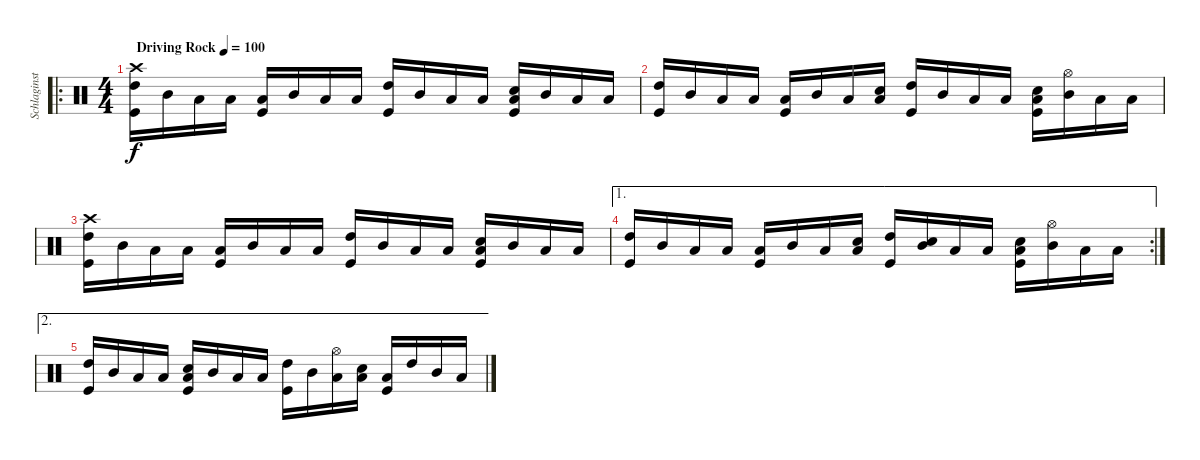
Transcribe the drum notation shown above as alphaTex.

\track ("Schlaginstrumente - Auswahl" "Schlaginst") {instrument percussion}
\staff {score}
\articulation defaults
\ro
\ts (4 4)
\tempo (100 "Driving Rock")
\clef neutral
\ks c
("Crash high (hit)" "High Tom (hit)" "Kick (hit)").16{dy f} "Mid Tom (hit)".16 "Low Tom (hit)".16 "Low Tom (hit)".16 ("Low Tom (hit)" "Kick (hit)").16 "Mid Tom (hit)".16 "Low Tom (hit)".16 "Low Tom (hit)".16 ("High Tom (hit)" "Kick (hit)").16 "Mid Tom (hit)".16 "Low Tom (hit)".16 "Low Tom (hit)".16 ("Snare (hit) 2" "Low Tom (hit)" "Kick (hit)").16 "Mid Tom (hit)".16 "Low Tom (hit)".16 "Low Tom (hit)".16 |
("High Tom (hit)" "Kick (hit)").16 "Mid Tom (hit)".16 "Low Tom (hit)".16 "Low Tom (hit)".16 ("Low Tom (hit)" "Kick (hit)").16 "Mid Tom (hit)".16 "Low Tom (hit)".16 ("Snare (hit) 2" "Low Tom (hit)").16 ("High Tom (hit)" "Kick (hit)").16 "Mid Tom (hit)".16 "Low Tom (hit)".16 "Low Tom (hit)".16 ("Snare (hit) 2" "Low Tom (hit)" "Kick (hit)").16 ("Hi-Hat (open)" "Mid Tom (hit)").16 "Low Tom (hit)".16 "Low Tom (hit)".16 |
("Crash high (hit)" "High Tom (hit)" "Kick (hit)").16 "Mid Tom (hit)".16 "Low Tom (hit)".16 "Low Tom (hit)".16 ("Low Tom (hit)" "Kick (hit)").16 "Mid Tom (hit)".16 "Low Tom (hit)".16 "Low Tom (hit)".16 ("High Tom (hit)" "Kick (hit)").16 "Mid Tom (hit)".16 "Low Tom (hit)".16 "Low Tom (hit)".16 ("Snare (hit) 2" "Low Tom (hit)" "Kick (hit)").16 "Mid Tom (hit)".16 "Low Tom (hit)".16 "Low Tom (hit)".16 |
\ae 1
\rc 2
("High Tom (hit)" "Kick (hit)").16 "Mid Tom (hit)".16 "Low Tom (hit)".16 "Low Tom (hit)".16 ("Low Tom (hit)" "Kick (hit)").16 "Mid Tom (hit)".16 "Low Tom (hit)".16 ("Snare (hit) 2" "Low Tom (hit)").16 ("High Tom (hit)" "Kick (hit)").16 ("Snare (hit) 2" "Mid Tom (hit)").16 "Low Tom (hit)".16 "Low Tom (hit)".16 ("Snare (hit) 2" "Low Tom (hit)" "Kick (hit)").16 ("Hi-Hat (open)" "Mid Tom (hit)").16 "Low Tom (hit)".16 "Low Tom (hit)".16 |
\ae 2
("High Tom (hit)" "Kick (hit)").16 "Mid Tom (hit)".16 "Low Tom (hit)".16 "Low Tom (hit)".16 ("Snare (hit) 2" "Low Tom (hit)" "Kick (hit)").16 "Mid Tom (hit)".16 "Low Tom (hit)".16 "Low Tom (hit)".16 ("High Tom (hit)" "Kick (hit)").16 "Mid Tom (hit)".16 ("Hi-Hat (open)" "Low Tom (hit)").16 ("Snare (hit) 2" "Low Tom (hit)").16 ("Low Tom (hit)" "Kick (hit)").16 "High Tom (hit)".16 "Mid Tom (hit)".16 "Low Tom (hit)".16
